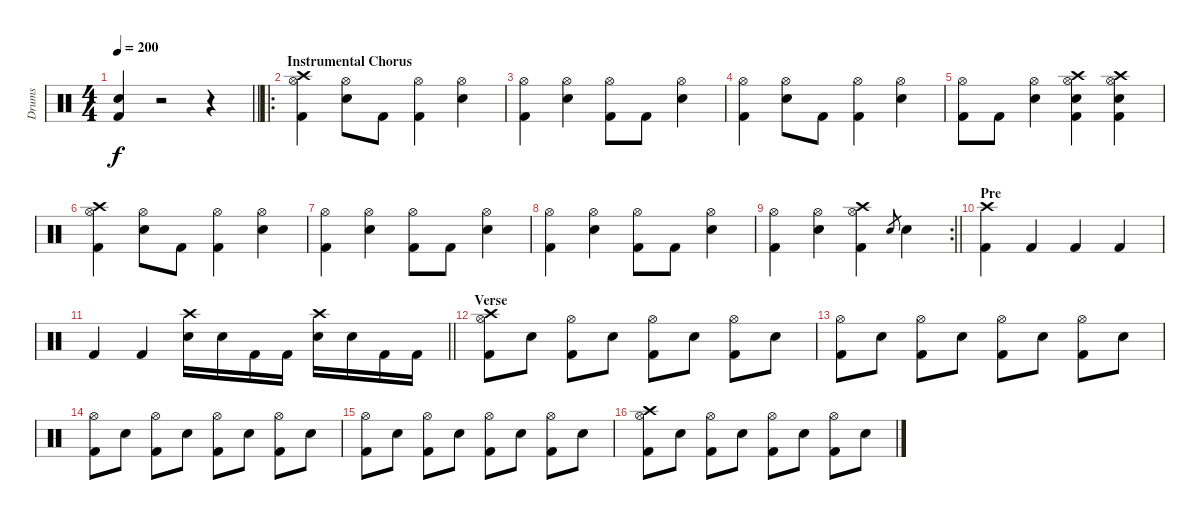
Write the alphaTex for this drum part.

\track ("Drums" "Drums") {instrument percussion}
\staff {score}
\articulation defaults
\ts (4 4)
\tempo 200
\clef neutral
\barLineRight lightlight
\ks c
("Snare (hit) 2" "Kick (hit) 2").4{dy f} r.2 r.4 |
\ro
\section ("" "Instrumental Chorus")
("Crash high (hit)" "Hi-Hat (open)" "Kick (hit) 2").4 ("Hi-Hat (open)" "Snare (hit) 2").8 "Kick (hit) 2".8 ("Hi-Hat (open)" "Kick (hit) 2").4 ("Hi-Hat (open)" "Snare (hit) 2").4 |
("Hi-Hat (open)" "Kick (hit) 2").4 ("Hi-Hat (open)" "Snare (hit) 2").4 ("Hi-Hat (open)" "Kick (hit) 2").8 "Kick (hit) 2".8 ("Hi-Hat (open)" "Snare (hit) 2").4 |
("Hi-Hat (open)" "Kick (hit) 2").4 ("Hi-Hat (open)" "Snare (hit) 2").8 "Kick (hit) 2".8 ("Hi-Hat (open)" "Kick (hit) 2").4 ("Hi-Hat (open)" "Snare (hit) 2").4 |
("Hi-Hat (open)" "Kick (hit) 2").8 "Kick (hit) 2".8 ("Hi-Hat (open)" "Snare (hit) 2").4 ("Crash high (hit)" "Hi-Hat (open)" "Snare (hit) 2" "Kick (hit) 2").4 ("Crash high (hit)" "Hi-Hat (open)" "Snare (hit) 2" "Kick (hit) 2").4 |
("Crash high (hit)" "Hi-Hat (open)" "Kick (hit) 2").4 ("Hi-Hat (open)" "Snare (hit) 2").8 "Kick (hit) 2".8 ("Hi-Hat (open)" "Kick (hit) 2").4 ("Hi-Hat (open)" "Snare (hit) 2").4 |
("Hi-Hat (open)" "Kick (hit) 2").4 ("Hi-Hat (open)" "Snare (hit) 2").4 ("Hi-Hat (open)" "Kick (hit) 2").8 "Kick (hit) 2".8 ("Hi-Hat (open)" "Snare (hit) 2").4 |
("Hi-Hat (open)" "Kick (hit) 2").4 ("Hi-Hat (open)" "Snare (hit) 2").4 ("Hi-Hat (open)" "Kick (hit) 2").8 "Kick (hit) 2".8 ("Hi-Hat (open)" "Snare (hit) 2").4 |
\rc 2
\barLineRight lightlight
("Hi-Hat (open)" "Kick (hit) 2").4 ("Hi-Hat (open)" "Snare (hit) 2").4 ("Crash high (hit)" "Hi-Hat (open)" "Kick (hit) 2").4 "Snare (hit) 2".8{gr} "Snare (hit) 2".4 |
\section ("" "Pre")
("Crash high (hit)" "Kick (hit) 2").4 "Kick (hit) 2".4 "Kick (hit) 2".4 "Kick (hit) 2".4 |
\barLineRight lightlight "Kick (hit) 2".4 "Kick (hit) 2".4
("Crash high (hit)" "Snare (hit) 2").16 "Snare (hit) 2".16 "Kick (hit) 2".16 "Kick (hit) 2".16 ("Crash high (hit)" "Snare (hit) 2").16 "Snare (hit) 2".16 "Kick (hit) 2".16 "Kick (hit) 2".16 |
\section ("" "Verse")
("Crash high (hit)" "Hi-Hat (open)" "Kick (hit) 2").8 "Snare (hit) 2".8 ("Hi-Hat (open)" "Kick (hit) 2").8 "Snare (hit) 2".8 ("Hi-Hat (open)" "Kick (hit) 2").8 "Snare (hit) 2".8 ("Hi-Hat (open)" "Kick (hit) 2").8 "Snare (hit) 2".8 |
("Hi-Hat (open)" "Kick (hit) 2").8 "Snare (hit) 2".8 ("Hi-Hat (open)" "Kick (hit) 2").8 "Snare (hit) 2".8 ("Hi-Hat (open)" "Kick (hit) 2").8 "Snare (hit) 2".8 ("Hi-Hat (open)" "Kick (hit) 2").8 "Snare (hit) 2".8 |
("Hi-Hat (open)" "Kick (hit) 2").8 "Snare (hit) 2".8 ("Hi-Hat (open)" "Kick (hit) 2").8 "Snare (hit) 2".8 ("Hi-Hat (open)" "Kick (hit) 2").8 "Snare (hit) 2".8 ("Hi-Hat (open)" "Kick (hit) 2").8 "Snare (hit) 2".8 |
("Hi-Hat (open)" "Kick (hit) 2").8 "Snare (hit) 2".8 ("Hi-Hat (open)" "Kick (hit) 2").8 "Snare (hit) 2".8 ("Hi-Hat (open)" "Kick (hit) 2").8 "Snare (hit) 2".8 ("Hi-Hat (open)" "Kick (hit) 2").8 "Snare (hit) 2".8 |
("Crash high (hit)" "Hi-Hat (open)" "Kick (hit) 2").8 "Snare (hit) 2".8 ("Hi-Hat (open)" "Kick (hit) 2").8 "Snare (hit) 2".8 ("Hi-Hat (open)" "Kick (hit) 2").8 "Snare (hit) 2".8 ("Hi-Hat (open)" "Kick (hit) 2").8 "Snare (hit) 2".8
